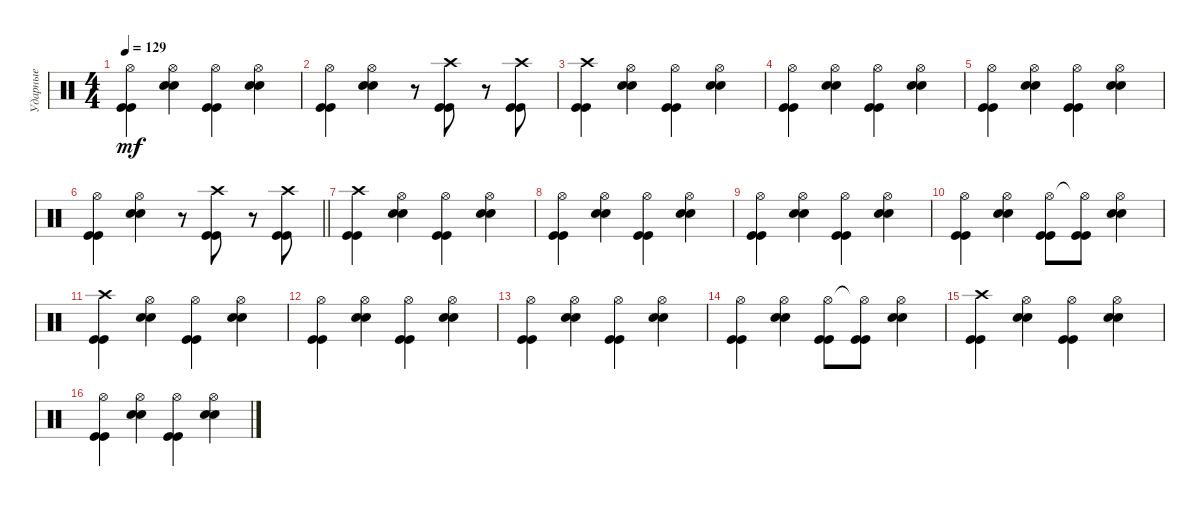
\track ("Ударные" "Ударные") {instrument percussion}
\staff {score}
\articulation defaults
\ts (4 4)
\tempo 129
\clef neutral
\ks c
("Hi-Hat (open)" "Kick (hit)" "Kick (hit)").4{dy mf} ("Hi-Hat (open)" "Snare (hit) 2" "Snare (hit) 2").4 ("Hi-Hat (open)" "Kick (hit)" "Kick (hit)").4 ("Hi-Hat (open)" "Snare (hit) 2" "Snare (hit) 2").4 |
("Hi-Hat (open)" "Kick (hit)" "Kick (hit)").4 ("Hi-Hat (open)" "Snare (hit) 2" "Snare (hit) 2").4 r.8 ("Crash high (hit)" "Kick (hit)" "Kick (hit)").8 r.8 ("Crash high (hit)" "Kick (hit)" "Kick (hit)").8 |
("Crash high (hit)" "Kick (hit)" "Kick (hit)").4 ("Hi-Hat (open)" "Snare (hit) 2" "Snare (hit) 2").4 ("Hi-Hat (open)" "Kick (hit)" "Kick (hit)").4 ("Hi-Hat (open)" "Snare (hit) 2" "Snare (hit) 2").4 |
("Hi-Hat (open)" "Kick (hit)" "Kick (hit)").4 ("Hi-Hat (open)" "Snare (hit) 2" "Snare (hit) 2").4 ("Hi-Hat (open)" "Kick (hit)" "Kick (hit)").4 ("Hi-Hat (open)" "Snare (hit) 2" "Snare (hit) 2").4 |
("Hi-Hat (open)" "Kick (hit)" "Kick (hit)").4 ("Hi-Hat (open)" "Snare (hit) 2" "Snare (hit) 2").4 ("Hi-Hat (open)" "Kick (hit)" "Kick (hit)").4 ("Hi-Hat (open)" "Snare (hit) 2" "Snare (hit) 2").4 |
\barLineRight lightlight
("Hi-Hat (open)" "Kick (hit)" "Kick (hit)").4 ("Hi-Hat (open)" "Snare (hit) 2" "Snare (hit) 2").4 r.8 ("Crash high (hit)" "Kick (hit)" "Kick (hit)").8 r.8 ("Crash high (hit)" "Kick (hit)" "Kick (hit)").8 |
("Crash high (hit)" "Kick (hit)" "Kick (hit)").4 ("Hi-Hat (open)" "Snare (hit) 2" "Snare (hit) 2").4 ("Hi-Hat (open)" "Kick (hit)" "Kick (hit)").4 ("Hi-Hat (open)" "Snare (hit) 2" "Snare (hit) 2").4 |
("Hi-Hat (open)" "Kick (hit)" "Kick (hit)").4 ("Hi-Hat (open)" "Snare (hit) 2" "Snare (hit) 2").4 ("Hi-Hat (open)" "Kick (hit)" "Kick (hit)").4 ("Hi-Hat (open)" "Snare (hit) 2" "Snare (hit) 2").4 |
("Hi-Hat (open)" "Kick (hit)" "Kick (hit)").4 ("Hi-Hat (open)" "Snare (hit) 2" "Snare (hit) 2").4 ("Hi-Hat (open)" "Kick (hit)" "Kick (hit)").4 ("Hi-Hat (open)" "Snare (hit) 2" "Snare (hit) 2").4 |
("Hi-Hat (open)" "Kick (hit)" "Kick (hit)").4 ("Hi-Hat (open)" "Snare (hit) 2" "Snare (hit) 2").4 ("Hi-Hat (open)" "Kick (hit)" "Kick (hit)").8 ("Hi-Hat (open)"{t} "Kick (hit)" "Kick (hit)").8 ("Hi-Hat (open)" "Snare (hit) 2" "Snare (hit) 2").4 |
("Crash high (hit)" "Kick (hit)" "Kick (hit)").4 ("Hi-Hat (open)" "Snare (hit) 2" "Snare (hit) 2").4 ("Hi-Hat (open)" "Kick (hit)" "Kick (hit)").4 ("Hi-Hat (open)" "Snare (hit) 2" "Snare (hit) 2").4 |
("Hi-Hat (open)" "Kick (hit)" "Kick (hit)").4 ("Hi-Hat (open)" "Snare (hit) 2" "Snare (hit) 2").4 ("Hi-Hat (open)" "Kick (hit)" "Kick (hit)").4 ("Hi-Hat (open)" "Snare (hit) 2" "Snare (hit) 2").4 |
("Hi-Hat (open)" "Kick (hit)" "Kick (hit)").4 ("Hi-Hat (open)" "Snare (hit) 2" "Snare (hit) 2").4 ("Hi-Hat (open)" "Kick (hit)" "Kick (hit)").4 ("Hi-Hat (open)" "Snare (hit) 2" "Snare (hit) 2").4 |
("Hi-Hat (open)" "Kick (hit)" "Kick (hit)").4 ("Hi-Hat (open)" "Snare (hit) 2" "Snare (hit) 2").4 ("Hi-Hat (open)" "Kick (hit)" "Kick (hit)").8 ("Hi-Hat (open)"{t} "Kick (hit)" "Kick (hit)").8 ("Hi-Hat (open)" "Snare (hit) 2" "Snare (hit) 2").4 |
("Crash high (hit)" "Kick (hit)" "Kick (hit)").4 ("Hi-Hat (open)" "Snare (hit) 2" "Snare (hit) 2").4 ("Hi-Hat (open)" "Kick (hit)" "Kick (hit)").4 ("Hi-Hat (open)" "Snare (hit) 2" "Snare (hit) 2").4 |
("Hi-Hat (open)" "Kick (hit)" "Kick (hit)").4 ("Hi-Hat (open)" "Snare (hit) 2" "Snare (hit) 2").4 ("Hi-Hat (open)" "Kick (hit)" "Kick (hit)").4 ("Hi-Hat (open)" "Snare (hit) 2" "Snare (hit) 2").4
